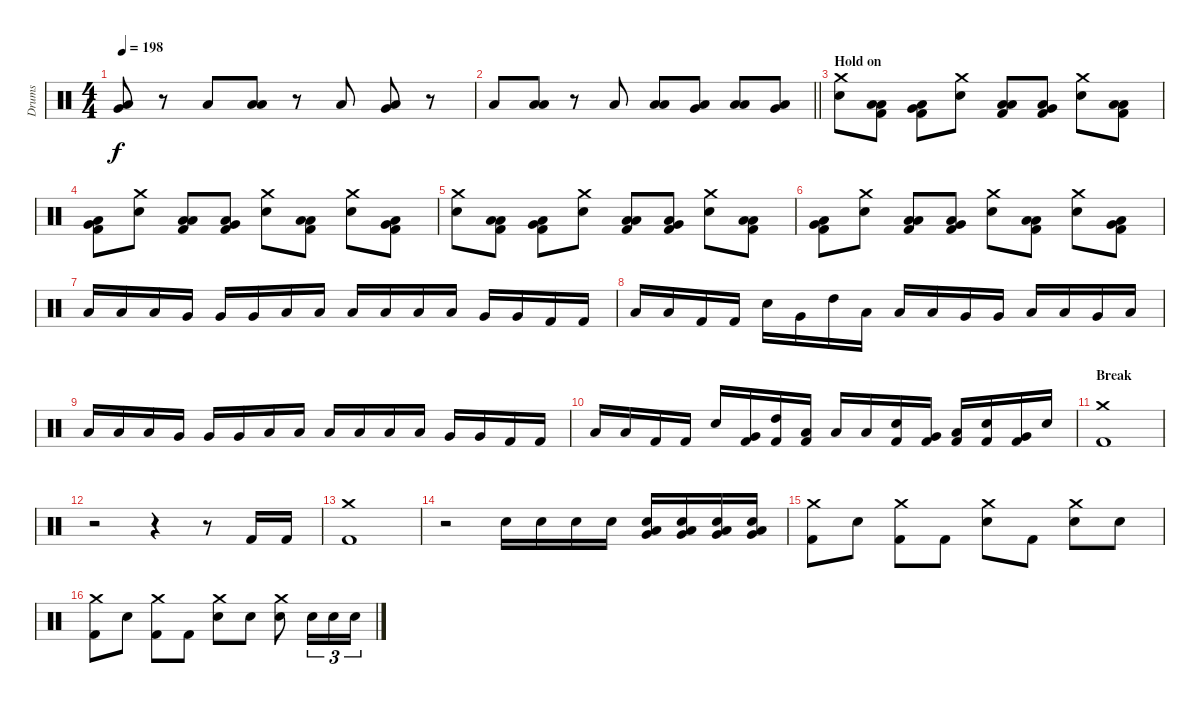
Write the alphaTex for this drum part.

\track ("Drums" "Drums") {instrument percussion}
\staff {score}
\articulation defaults
\ts (4 4)
\tempo 198
\clef neutral
\ks c
("Low Floor Tom (hit)" "Very Low Tom (hit)").8{dy f} r.8 "Low Floor Tom (hit)".8 ("Low Tom (hit)" "Low Floor Tom (hit)").8 r.8 "Low Floor Tom (hit)".8 ("Very Low Tom (hit)" "Low Floor Tom (hit)").8 r.8 |
\barLineRight lightlight "Low Floor Tom (hit)".8
("Low Tom (hit)" "Low Floor Tom (hit)").8 r.8 "Low Floor Tom (hit)".8 ("Low Tom (hit)" "Low Floor Tom (hit)").8 ("Very Low Tom (hit)" "Low Floor Tom (hit)").8 ("Low Tom (hit)" "Low Floor Tom (hit)").8 ("Very Low Tom (hit)" "Low Floor Tom (hit)").8 |
\section ("" "Hold on")
("Crash medium (hit)" "Electric Snare (hit)").8 ("Low Tom (hit)" "Low Floor Tom (hit)" "Kick (hit) 2").8 ("Very Low Tom (hit)" "Low Floor Tom (hit)" "Kick (hit) 2").8 ("Crash medium (hit)" "Electric Snare (hit)").8 ("Low Tom (hit)" "Low Floor Tom (hit)" "Kick (hit) 2").8 ("Very Low Tom (hit)" "Low Floor Tom (hit)" "Kick (hit) 2").8 ("Crash medium (hit)" "Electric Snare (hit)").8 ("Low Tom (hit)" "Low Floor Tom (hit)" "Kick (hit) 2").8 |
("Very Low Tom (hit)" "Low Floor Tom (hit)" "Kick (hit) 2").8 ("Crash medium (hit)" "Electric Snare (hit)").8 ("Low Tom (hit)" "Low Floor Tom (hit)" "Kick (hit) 2").8 ("Very Low Tom (hit)" "Low Floor Tom (hit)" "Kick (hit) 2").8 ("Crash medium (hit)" "Electric Snare (hit)").8 ("Low Tom (hit)" "Low Floor Tom (hit)" "Kick (hit) 2").8 ("Crash medium (hit)" "Electric Snare (hit)").8 ("Very Low Tom (hit)" "Low Floor Tom (hit)" "Kick (hit) 2").8 |
("Crash medium (hit)" "Electric Snare (hit)").8 ("Low Tom (hit)" "Low Floor Tom (hit)" "Kick (hit) 2").8 ("Very Low Tom (hit)" "Low Floor Tom (hit)" "Kick (hit) 2").8 ("Crash medium (hit)" "Electric Snare (hit)").8 ("Low Tom (hit)" "Low Floor Tom (hit)" "Kick (hit) 2").8 ("Very Low Tom (hit)" "Low Floor Tom (hit)" "Kick (hit) 2").8 ("Crash medium (hit)" "Electric Snare (hit)").8 ("Low Tom (hit)" "Low Floor Tom (hit)" "Kick (hit) 2").8 |
("Very Low Tom (hit)" "Low Floor Tom (hit)" "Kick (hit) 2").8 ("Crash medium (hit)" "Electric Snare (hit)").8 ("Low Tom (hit)" "Low Floor Tom (hit)" "Kick (hit) 2").8 ("Very Low Tom (hit)" "Low Floor Tom (hit)" "Kick (hit) 2").8 ("Crash medium (hit)" "Electric Snare (hit)").8 ("Low Tom (hit)" "Low Floor Tom (hit)" "Kick (hit) 2").8 ("Crash medium (hit)" "Electric Snare (hit)").8 ("Very Low Tom (hit)" "Low Floor Tom (hit)" "Kick (hit) 2").8 |
"Low Tom (hit)".16 "Low Tom (hit)".16 "Low Tom (hit)".16 "Very Low Tom (hit)".16 "Very Low Tom (hit)".16 "Very Low Tom (hit)".16 "Low Floor Tom (hit)".16 "Low Floor Tom (hit)".16 "Low Floor Tom (hit)".16 "Low Tom (hit)".16 "Low Tom (hit)".16 "Low Tom (hit)".16 "Very Low Tom (hit)".16 "Very Low Tom (hit)".16 "Kick (hit) 2".16 "Kick (hit) 2".16 |
"Low Tom (hit)".16 "Low Tom (hit)".16 "Kick (hit) 2".16 "Kick (hit) 2".16 "Electric Snare (hit)".16 "Very Low Tom (hit)".16 "High Tom (hit)".16 "Low Tom (hit)".16 "Low Tom (hit)".16 "Low Tom (hit)".16 "Very Low Tom (hit)".16 "Very Low Tom (hit)".16 "Low Floor Tom (hit)".16 "Low Tom (hit)".16 "Very Low Tom (hit)".16 "Low Tom (hit)".16 |
"Low Tom (hit)".16 "Low Tom (hit)".16 "Low Tom (hit)".16 "Very Low Tom (hit)".16 "Very Low Tom (hit)".16 "Very Low Tom (hit)".16 "Low Floor Tom (hit)".16 "Low Floor Tom (hit)".16 "Low Floor Tom (hit)".16 "Low Tom (hit)".16 "Low Tom (hit)".16 "Low Tom (hit)".16 "Very Low Tom (hit)".16 "Very Low Tom (hit)".16 "Kick (hit) 2".16 "Kick (hit) 2".16 |
"Low Tom (hit)".16 "Low Tom (hit)".16 "Kick (hit) 2".16 "Kick (hit) 2".16 "Electric Snare (hit)".16 ("Very Low Tom (hit)" "Kick (hit) 2").16 ("High Tom (hit)" "Kick (hit) 2").16 ("Low Tom (hit)" "Kick (hit) 2").16 "Low Tom (hit)".16 "Low Tom (hit)".16 ("Electric Snare (hit)" "Kick (hit) 2").16 ("Very Low Tom (hit)" "Kick (hit) 2").16 ("Low Floor Tom (hit)" "Kick (hit) 2").16 ("Electric Snare (hit)" "Kick (hit) 2").16 ("Very Low Tom (hit)" "Kick (hit) 2").16 "Electric Snare (hit)".16 |
\section ("" "Break")
("Crash medium (hit)" "Kick (hit) 2").1 |
r.2 r.4 r.8 "Kick (hit) 2".16 "Kick (hit) 2".16 |
("Crash medium (hit)" "Kick (hit) 2").1 |
r.2 "Electric Snare (hit)".16 "Electric Snare (hit)".16 "Electric Snare (hit)".16 "Electric Snare (hit)".16 ("Low Tom (hit)" "Electric Snare (hit)" "Very Low Tom (hit)").16 ("Low Tom (hit)" "Electric Snare (hit)" "Very Low Tom (hit)").16 ("Low Tom (hit)" "Electric Snare (hit)" "Very Low Tom (hit)").16 ("Low Tom (hit)" "Electric Snare (hit)" "Very Low Tom (hit)").16 |
("Crash medium (hit)" "Kick (hit) 2").8 "Electric Snare (hit)".8 ("Crash medium (hit)" "Kick (hit) 2").8 "Kick (hit) 2".8 ("Crash medium (hit)" "Electric Snare (hit)").8 "Kick (hit) 2".8 ("Crash medium (hit)" "Electric Snare (hit)").8 "Electric Snare (hit)".8 |
("Crash medium (hit)" "Kick (hit) 2").8 "Electric Snare (hit)".8 ("Crash medium (hit)" "Kick (hit) 2").8 "Kick (hit) 2".8 ("Crash medium (hit)" "Electric Snare (hit)").8 "Electric Snare (hit)".8 ("Crash medium (hit)" "Electric Snare (hit)").8 "Electric Snare (hit)".16{tu (3 2)} "Electric Snare (hit)".16{tu (3 2)} "Electric Snare (hit)".16{tu (3 2)}
